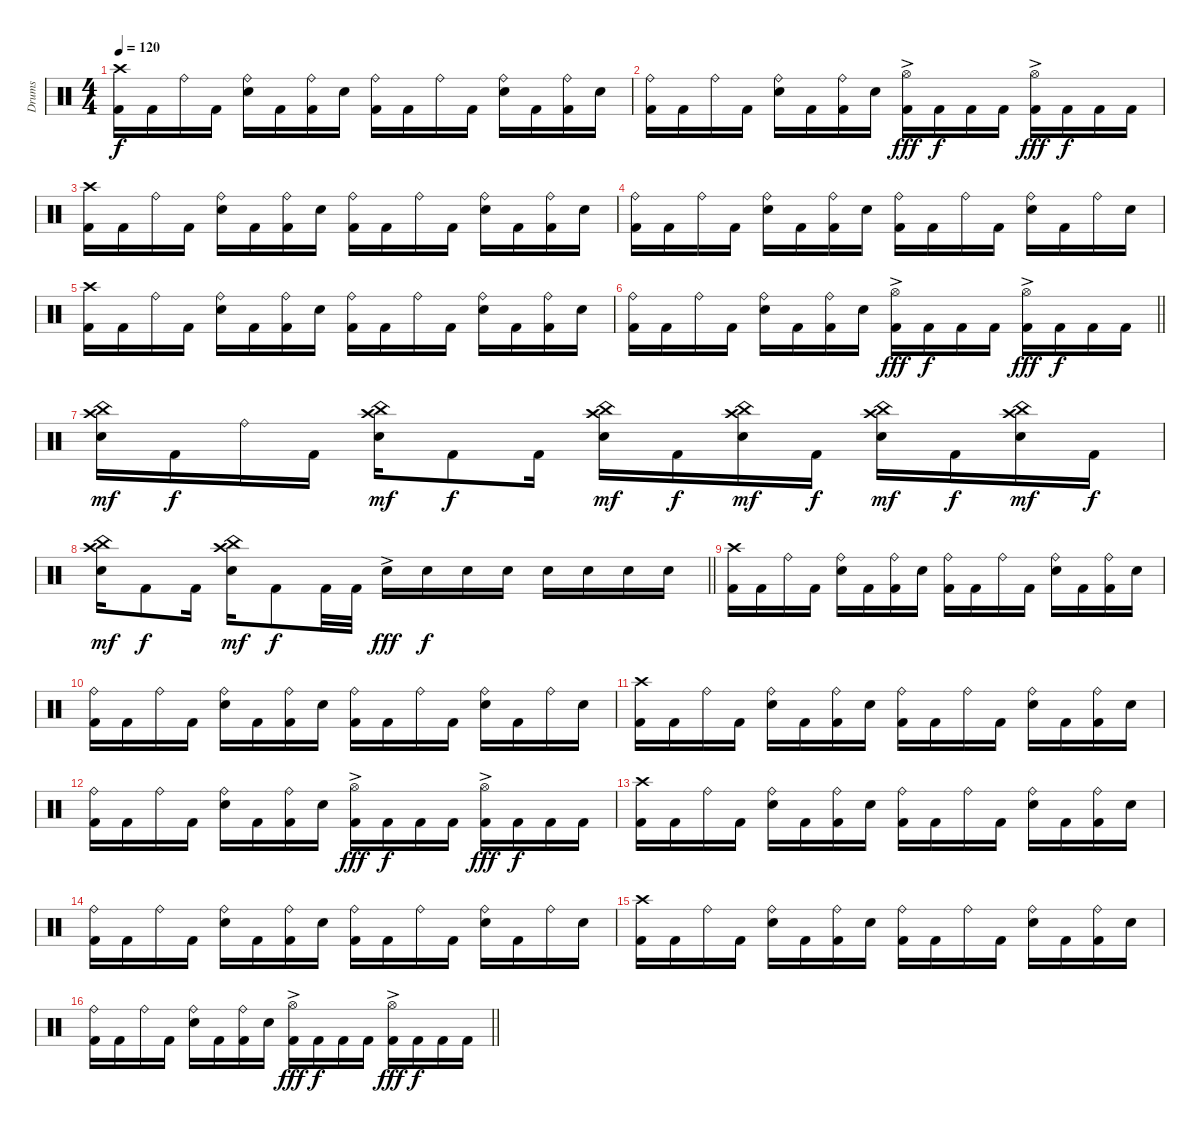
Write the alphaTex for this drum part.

\track ("Drums" "Drums") {instrument percussion}
\staff {score}
\articulation defaults
\ts (4 4)
\tempo 120
\clef neutral
\ks c
("Crash high (hit)" "Kick (hit) 2").16{dy f} "Kick (hit) 2".16 "Ride (bell)".16 "Kick (hit) 2".16 ("Ride (bell)" "Snare (hit) 2").16 "Kick (hit) 2".16 ("Ride (bell)" "Kick (hit) 2").16 "Snare (hit) 2".16 ("Ride (bell)" "Kick (hit) 2").16 "Kick (hit) 2".16 "Ride (bell)".16 "Kick (hit) 2".16 ("Ride (bell)" "Snare (hit) 2").16 "Kick (hit) 2".16 ("Ride (bell)" "Kick (hit) 2").16 "Snare (hit) 2".16 |
("Ride (bell)" "Kick (hit) 2").16 "Kick (hit) 2".16 "Ride (bell)".16 "Kick (hit) 2".16 ("Ride (bell)" "Snare (hit) 2").16 "Kick (hit) 2".16 ("Ride (bell)" "Kick (hit) 2").16 "Snare (hit) 2".16 ("Hi-Hat (open)"{ac} "Kick (hit) 2").16{dy fff} "Kick (hit) 2".16{dy f} "Kick (hit) 2".16 "Kick (hit) 2".16 ("Hi-Hat (open)"{ac} "Kick (hit) 2").16{dy fff} "Kick (hit) 2".16{dy f} "Kick (hit) 2".16 "Kick (hit) 2".16 |
("Crash high (hit)" "Kick (hit) 2").16 "Kick (hit) 2".16 "Ride (bell)".16 "Kick (hit) 2".16 ("Ride (bell)" "Snare (hit) 2").16 "Kick (hit) 2".16 ("Ride (bell)" "Kick (hit) 2").16 "Snare (hit) 2".16 ("Ride (bell)" "Kick (hit) 2").16 "Kick (hit) 2".16 "Ride (bell)".16 "Kick (hit) 2".16 ("Ride (bell)" "Snare (hit) 2").16 "Kick (hit) 2".16 ("Ride (bell)" "Kick (hit) 2").16 "Snare (hit) 2".16 |
("Ride (bell)" "Kick (hit) 2").16 "Kick (hit) 2".16 "Ride (bell)".16 "Kick (hit) 2".16 ("Ride (bell)" "Snare (hit) 2").16 "Kick (hit) 2".16 ("Ride (bell)" "Kick (hit) 2").16 "Snare (hit) 2".16 ("Ride (bell)" "Kick (hit) 2").16 "Kick (hit) 2".16 "Ride (bell)".16 "Kick (hit) 2".16 ("Ride (bell)" "Snare (hit) 2").16 "Kick (hit) 2".16 "Ride (bell)".16 "Snare (hit) 2".16 |
("Crash high (hit)" "Kick (hit) 2").16 "Kick (hit) 2".16 "Ride (bell)".16 "Kick (hit) 2".16 ("Ride (bell)" "Snare (hit) 2").16 "Kick (hit) 2".16 ("Ride (bell)" "Kick (hit) 2").16 "Snare (hit) 2".16 ("Ride (bell)" "Kick (hit) 2").16 "Kick (hit) 2".16 "Ride (bell)".16 "Kick (hit) 2".16 ("Ride (bell)" "Snare (hit) 2").16 "Kick (hit) 2".16 ("Ride (bell)" "Kick (hit) 2").16 "Snare (hit) 2".16 |
\barLineRight lightlight
("Ride (bell)" "Kick (hit) 2").16 "Kick (hit) 2".16 "Ride (bell)".16 "Kick (hit) 2".16 ("Ride (bell)" "Snare (hit) 2").16 "Kick (hit) 2".16 ("Ride (bell)" "Kick (hit) 2").16 "Snare (hit) 2".16 ("Hi-Hat (open)"{ac} "Kick (hit) 2").16{dy fff} "Kick (hit) 2".16{dy f} "Kick (hit) 2".16 "Kick (hit) 2".16 ("Hi-Hat (open)"{ac} "Kick (hit) 2").16{dy fff} "Kick (hit) 2".16{dy f} "Kick (hit) 2".16 "Kick (hit) 2".16 |
("Crash high (hit)" "China (hit)" "Snare (hit) 2").16{dy mf} "Kick (hit) 2".16{dy f} "Ride (bell)".16 "Kick (hit) 2".16 ("Crash high (hit)" "China (hit)" "Snare (hit) 2").16{dy mf} "Kick (hit) 2".8{dy f} "Kick (hit) 2".16 ("Crash high (hit)" "China (hit)" "Snare (hit) 2").16{dy mf} "Kick (hit) 2".16{dy f} ("Crash high (hit)" "China (hit)" "Snare (hit) 2").16{dy mf} "Kick (hit) 2".16{dy f} ("Crash high (hit)" "China (hit)" "Snare (hit) 2").16{dy mf} "Kick (hit) 2".16{dy f} ("Crash high (hit)" "China (hit)" "Snare (hit) 2").16{dy mf} "Kick (hit) 2".16{dy f} |
\barLineRight lightlight
("Crash high (hit)" "China (hit)" "Snare (hit) 2").16{dy mf} "Kick (hit) 2".8{dy f} "Kick (hit) 2".16 ("Crash high (hit)" "China (hit)" "Snare (hit) 2").16{dy mf} "Kick (hit) 2".8{dy f} "Kick (hit) 2".32 "Kick (hit) 2".32 "Snare (hit) 2"{ac}.16{dy fff} "Snare (hit) 2".16{dy f} "Snare (hit) 2".16 "Snare (hit) 2".16 "Snare (hit) 2".16 "Snare (hit) 2".16 "Snare (hit) 2".16 "Snare (hit) 2".16 |
("Crash high (hit)" "Kick (hit) 2").16 "Kick (hit) 2".16 "Ride (bell)".16 "Kick (hit) 2".16 ("Ride (bell)" "Snare (hit) 2").16 "Kick (hit) 2".16 ("Ride (bell)" "Kick (hit) 2").16 "Snare (hit) 2".16 ("Ride (bell)" "Kick (hit) 2").16 "Kick (hit) 2".16 "Ride (bell)".16 "Kick (hit) 2".16 ("Ride (bell)" "Snare (hit) 2").16 "Kick (hit) 2".16 ("Ride (bell)" "Kick (hit) 2").16 "Snare (hit) 2".16 |
("Ride (bell)" "Kick (hit) 2").16 "Kick (hit) 2".16 "Ride (bell)".16 "Kick (hit) 2".16 ("Ride (bell)" "Snare (hit) 2").16 "Kick (hit) 2".16 ("Ride (bell)" "Kick (hit) 2").16 "Snare (hit) 2".16 ("Ride (bell)" "Kick (hit) 2").16 "Kick (hit) 2".16 "Ride (bell)".16 "Kick (hit) 2".16 ("Ride (bell)" "Snare (hit) 2").16 "Kick (hit) 2".16 "Ride (bell)".16 "Snare (hit) 2".16 |
("Crash high (hit)" "Kick (hit) 2").16 "Kick (hit) 2".16 "Ride (bell)".16 "Kick (hit) 2".16 ("Ride (bell)" "Snare (hit) 2").16 "Kick (hit) 2".16 ("Ride (bell)" "Kick (hit) 2").16 "Snare (hit) 2".16 ("Ride (bell)" "Kick (hit) 2").16 "Kick (hit) 2".16 "Ride (bell)".16 "Kick (hit) 2".16 ("Ride (bell)" "Snare (hit) 2").16 "Kick (hit) 2".16 ("Ride (bell)" "Kick (hit) 2").16 "Snare (hit) 2".16 |
("Ride (bell)" "Kick (hit) 2").16 "Kick (hit) 2".16 "Ride (bell)".16 "Kick (hit) 2".16 ("Ride (bell)" "Snare (hit) 2").16 "Kick (hit) 2".16 ("Ride (bell)" "Kick (hit) 2").16 "Snare (hit) 2".16 ("Hi-Hat (open)"{ac} "Kick (hit) 2").16{dy fff} "Kick (hit) 2".16{dy f} "Kick (hit) 2".16 "Kick (hit) 2".16 ("Hi-Hat (open)"{ac} "Kick (hit) 2").16{dy fff} "Kick (hit) 2".16{dy f} "Kick (hit) 2".16 "Kick (hit) 2".16 |
("Crash high (hit)" "Kick (hit) 2").16 "Kick (hit) 2".16 "Ride (bell)".16 "Kick (hit) 2".16 ("Ride (bell)" "Snare (hit) 2").16 "Kick (hit) 2".16 ("Ride (bell)" "Kick (hit) 2").16 "Snare (hit) 2".16 ("Ride (bell)" "Kick (hit) 2").16 "Kick (hit) 2".16 "Ride (bell)".16 "Kick (hit) 2".16 ("Ride (bell)" "Snare (hit) 2").16 "Kick (hit) 2".16 ("Ride (bell)" "Kick (hit) 2").16 "Snare (hit) 2".16 |
("Ride (bell)" "Kick (hit) 2").16 "Kick (hit) 2".16 "Ride (bell)".16 "Kick (hit) 2".16 ("Ride (bell)" "Snare (hit) 2").16 "Kick (hit) 2".16 ("Ride (bell)" "Kick (hit) 2").16 "Snare (hit) 2".16 ("Ride (bell)" "Kick (hit) 2").16 "Kick (hit) 2".16 "Ride (bell)".16 "Kick (hit) 2".16 ("Ride (bell)" "Snare (hit) 2").16 "Kick (hit) 2".16 "Ride (bell)".16 "Snare (hit) 2".16 |
("Crash high (hit)" "Kick (hit) 2").16 "Kick (hit) 2".16 "Ride (bell)".16 "Kick (hit) 2".16 ("Ride (bell)" "Snare (hit) 2").16 "Kick (hit) 2".16 ("Ride (bell)" "Kick (hit) 2").16 "Snare (hit) 2".16 ("Ride (bell)" "Kick (hit) 2").16 "Kick (hit) 2".16 "Ride (bell)".16 "Kick (hit) 2".16 ("Ride (bell)" "Snare (hit) 2").16 "Kick (hit) 2".16 ("Ride (bell)" "Kick (hit) 2").16 "Snare (hit) 2".16 |
\barLineRight lightlight
("Ride (bell)" "Kick (hit) 2").16 "Kick (hit) 2".16 "Ride (bell)".16 "Kick (hit) 2".16 ("Ride (bell)" "Snare (hit) 2").16 "Kick (hit) 2".16 ("Ride (bell)" "Kick (hit) 2").16 "Snare (hit) 2".16 ("Hi-Hat (open)"{ac} "Kick (hit) 2").16{dy fff} "Kick (hit) 2".16{dy f} "Kick (hit) 2".16 "Kick (hit) 2".16 ("Hi-Hat (open)"{ac} "Kick (hit) 2").16{dy fff} "Kick (hit) 2".16{dy f} "Kick (hit) 2".16 "Kick (hit) 2".16
